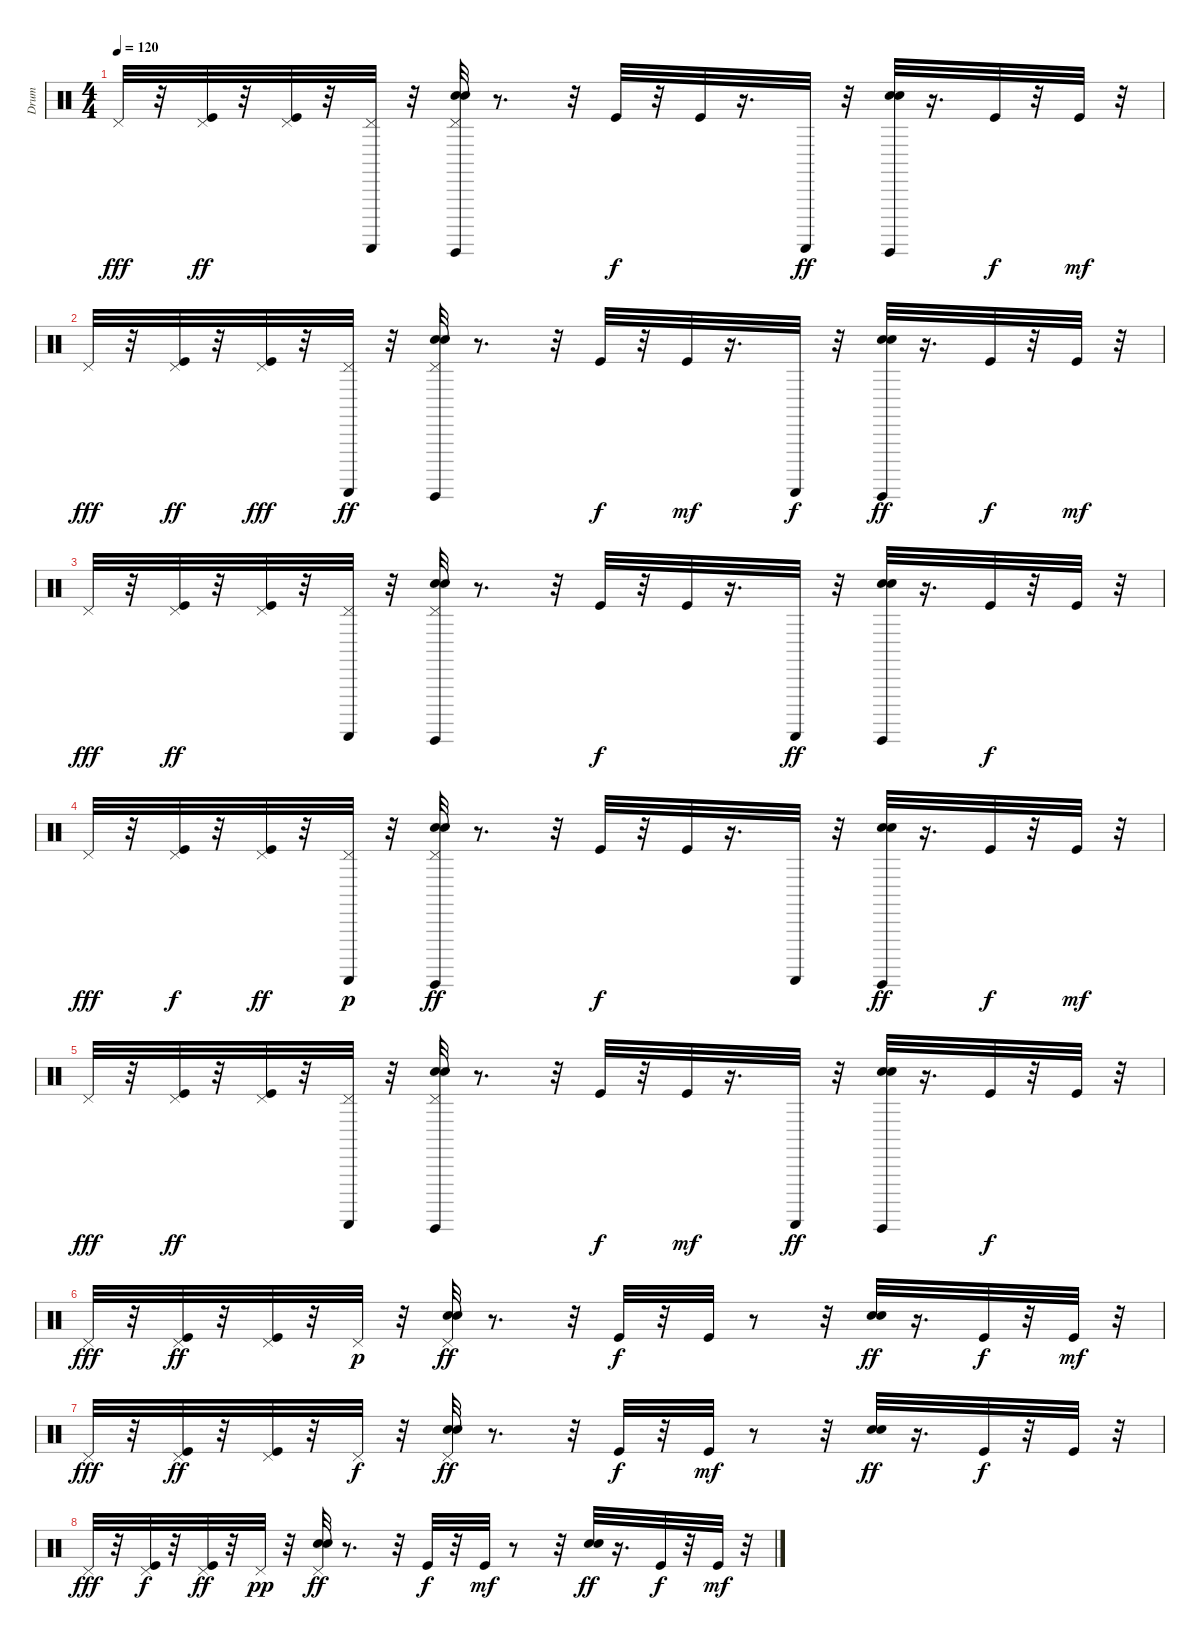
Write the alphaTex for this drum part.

\track ("Drum" "Drum") {instrument percussion}
\staff {score}
\articulation defaults
\ts (4 4)
\tempo 120
\clef neutral
\ks c "Pedal Hi-Hat (hit)".32{dy fff}
r.32 ("Kick (hit)" "Pedal Hi-Hat (hit)").32{dy ff} r.32 ("Kick (hit)" "Pedal Hi-Hat (hit)").32 r.32 ("Guiro (scrap-return)" "Pedal Hi-Hat (hit)").32 r.32 ("Guiro (hit)" "Snare (hit) 2" "Electric Snare (hit)" "Pedal Hi-Hat (hit)").32 r.8{d} r.32 "Kick (hit)".32{dy f} r.32 "Kick (hit)".32 r.16{d} "Guiro (scrap-return)".32{dy ff} r.32 ("Guiro (hit)" "Snare (hit) 2" "Electric Snare (hit)").32 r.16{d} "Kick (hit)".32{dy f} r.32 "Kick (hit)".32{dy mf} r.32 |
"Pedal Hi-Hat (hit)".32{dy fff} r.32 ("Kick (hit)" "Pedal Hi-Hat (hit)").32{dy ff} r.32 ("Kick (hit)" "Pedal Hi-Hat (hit)").32{dy fff} r.32 ("Guiro (scrap-return)" "Pedal Hi-Hat (hit)").32{dy ff} r.32 ("Guiro (hit)" "Snare (hit) 2" "Electric Snare (hit)" "Pedal Hi-Hat (hit)").32 r.8{d} r.32 "Kick (hit)".32{dy f} r.32 "Kick (hit)".32{dy mf} r.16{d} "Guiro (scrap-return)".32{dy f} r.32 ("Electric Snare (hit)" "Snare (hit) 2" "Guiro (hit)").32{dy ff} r.16{d} "Kick (hit)".32{dy f} r.32 "Kick (hit)".32{dy mf} r.32 |
"Pedal Hi-Hat (hit)".32{dy fff} r.32 ("Kick (hit)" "Pedal Hi-Hat (hit)").32{dy ff} r.32 ("Kick (hit)" "Pedal Hi-Hat (hit)").32 r.32 ("Guiro (scrap-return)" "Pedal Hi-Hat (hit)").32 r.32 ("Guiro (hit)" "Snare (hit) 2" "Electric Snare (hit)" "Pedal Hi-Hat (hit)").32 r.8{d} r.32 "Kick (hit)".32{dy f} r.32 "Kick (hit)".32 r.16{d} "Guiro (scrap-return)".32{dy ff} r.32 ("Guiro (hit)" "Snare (hit) 2" "Electric Snare (hit)").32 r.16{d} "Kick (hit)".32{dy f} r.32 "Kick (hit)".32 r.32 |
"Pedal Hi-Hat (hit)".32{dy fff} r.32 ("Kick (hit)" "Pedal Hi-Hat (hit)").32{dy f} r.32 ("Kick (hit)" "Pedal Hi-Hat (hit)").32{dy ff} r.32 ("Guiro (scrap-return)" "Pedal Hi-Hat (hit)").32{dy p} r.32 ("Guiro (hit)" "Snare (hit) 2" "Electric Snare (hit)" "Pedal Hi-Hat (hit)").32{dy ff} r.8{d} r.32 "Kick (hit)".32{dy f} r.32 "Kick (hit)".32 r.16{d} "Guiro (scrap-return)".32 r.32 ("Snare (hit) 2" "Electric Snare (hit)" "Guiro (hit)").32{dy ff} r.16{d} "Kick (hit)".32{dy f} r.32 "Kick (hit)".32{dy mf} r.32 |
"Pedal Hi-Hat (hit)".32{dy fff} r.32 ("Pedal Hi-Hat (hit)" "Kick (hit)").32{dy ff} r.32 ("Kick (hit)" "Pedal Hi-Hat (hit)").32 r.32 ("Guiro (scrap-return)" "Pedal Hi-Hat (hit)").32 r.32 ("Guiro (hit)" "Pedal Hi-Hat (hit)" "Snare (hit) 2" "Electric Snare (hit)").32 r.8{d} r.32 "Kick (hit)".32{dy f} r.32 "Kick (hit)".32{dy mf} r.16{d} "Guiro (scrap-return)".32{dy ff} r.32 ("Guiro (hit)" "Electric Snare (hit)" "Snare (hit) 2").32 r.16{d} "Kick (hit)".32{dy f} r.32 "Kick (hit)".32 r.32 |
"Pedal Hi-Hat (hit)".32{dy fff} r.32 ("Pedal Hi-Hat (hit)" "Kick (hit)").32{dy ff} r.32 ("Kick (hit)" "Pedal Hi-Hat (hit)").32 r.32 "Pedal Hi-Hat (hit)".32{dy p} r.32 ("Snare (hit) 2" "Electric Snare (hit)" "Pedal Hi-Hat (hit)").32{dy ff} r.8{d} r.32 "Kick (hit)".32{dy f} r.32 "Kick (hit)".32 r.8 r.32 ("Snare (hit) 2" "Electric Snare (hit)").32{dy ff} r.16{d} "Kick (hit)".32{dy f} r.32 "Kick (hit)".32{dy mf} r.32 |
"Pedal Hi-Hat (hit)".32{dy fff} r.32 ("Kick (hit)" "Pedal Hi-Hat (hit)").32{dy ff} r.32 ("Kick (hit)" "Pedal Hi-Hat (hit)").32 r.32 "Pedal Hi-Hat (hit)".32{dy f} r.32 ("Snare (hit) 2" "Electric Snare (hit)" "Pedal Hi-Hat (hit)").32{dy ff} r.8{d} r.32 "Kick (hit)".32{dy f} r.32 "Kick (hit)".32{dy mf} r.8 r.32 ("Snare (hit) 2" "Electric Snare (hit)").32{dy ff} r.16{d} "Kick (hit)".32{dy f} r.32 "Kick (hit)".32 r.32 |
"Pedal Hi-Hat (hit)".32{dy fff} r.32 ("Kick (hit)" "Pedal Hi-Hat (hit)").32{dy f} r.32 ("Kick (hit)" "Pedal Hi-Hat (hit)").32{dy ff} r.32 "Pedal Hi-Hat (hit)".32{dy pp} r.32 ("Snare (hit) 2" "Electric Snare (hit)" "Pedal Hi-Hat (hit)").32{dy ff} r.8{d} r.32 "Kick (hit)".32{dy f} r.32 "Kick (hit)".32{dy mf} r.8 r.32 ("Snare (hit) 2" "Electric Snare (hit)").32{dy ff} r.16{d} "Kick (hit)".32{dy f} r.32 "Kick (hit)".32{dy mf} r.32
